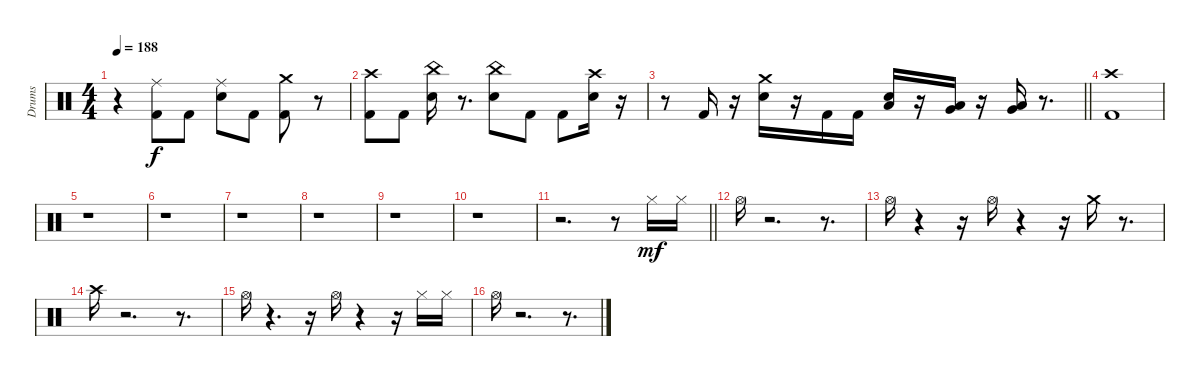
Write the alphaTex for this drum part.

\track ("Drums" "Drums") {instrument percussion}
\staff {score}
\articulation defaults
\ts (4 4)
\tempo 188
\clef neutral
\ks c
r.4{dy f} ("Kick (hit) 2" "Ride (middle)").8 "Kick (hit) 2".8 ("Snare (hit) 2" "Ride (middle)").8 "Kick (hit) 2".8 ("Kick (hit) 2" "Crash medium (hit)").8 r.8 |
("Kick (hit) 2" "Crash high (hit)").8 "Kick (hit) 2".8 ("Snare (hit) 2" "China (hit)").16 r.8{d} ("Snare (hit) 2" "China (hit)").8 "Kick (hit) 2".8 "Kick (hit) 2".8 ("Snare (hit) 2" "Crash high (hit)").16 r.16 |
\barLineRight lightlight
r.8 "Kick (hit) 2".16 r.16 ("Snare (hit) 2" "Crash medium (hit)").16 r.16 "Kick (hit) 2".16 "Kick (hit) 2".16 ("Snare (hit) 2" "Low Floor Tom (hit)").16 r.16 ("Low Floor Tom (hit)" "Very Low Tom (hit)").16 r.16 ("Low Floor Tom (hit)" "Very Low Tom (hit)").16 r.8{d} |
\section ("" " ")
("Kick (hit) 2" "Crash high (hit)").1 |
r.1 |
r.1 |
r.1 |
r.1 |
r.1 |
r.1 |
\barLineRight lightlight
r.2{d} r.8 "Hi-Hat (closed)".16{dy mf} "Hi-Hat (closed)".16 |
\section ("" " ")
"Hi-Hat (open)".16 r.2{d} r.8{d} |
"Hi-Hat (open)".16 r.4 r.16 "Hi-Hat (open)".16 r.4 r.16 "Crash medium (hit)".16 r.8{d} |
"Crash high (hit)".16 r.2{d} r.8{d} |
"Hi-Hat (open)".16 r.4{d} r.16 "Hi-Hat (open)".16 r.4 r.16 "Hi-Hat (closed)".16 "Hi-Hat (closed)".16 |
"Hi-Hat (open)".16 r.2{d} r.8{d}
